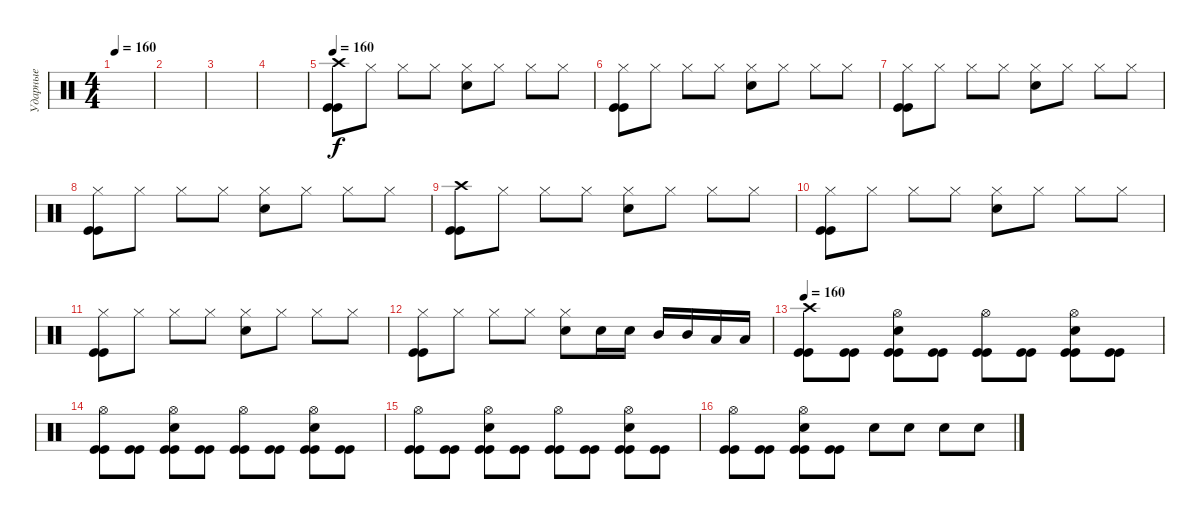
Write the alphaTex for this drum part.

\track ("Ударные" "Ударные") {instrument percussion}
\staff {score}
\articulation defaults
\ts (4 4)
\tempo 160
\clef neutral
\ks c
|
|
|
|
\tempo 160
("Crash high (hit)" "Kick (hit)" "Kick (hit)").8 "Hi-Hat (closed)".8 "Hi-Hat (closed)".8 "Hi-Hat (closed)".8 ("Hi-Hat (closed)" "Electric Snare (hit)").8 "Hi-Hat (closed)".8 "Hi-Hat (closed)".8 "Hi-Hat (closed)".8 |
("Hi-Hat (closed)" "Kick (hit)" "Kick (hit)").8 "Hi-Hat (closed)".8 "Hi-Hat (closed)".8 "Hi-Hat (closed)".8 ("Hi-Hat (closed)" "Electric Snare (hit)").8 "Hi-Hat (closed)".8 "Hi-Hat (closed)".8 "Hi-Hat (closed)".8 |
("Hi-Hat (closed)" "Kick (hit)" "Kick (hit)").8 "Hi-Hat (closed)".8 "Hi-Hat (closed)".8 "Hi-Hat (closed)".8 ("Hi-Hat (closed)" "Electric Snare (hit)").8 "Hi-Hat (closed)".8 "Hi-Hat (closed)".8 "Hi-Hat (closed)".8 |
("Hi-Hat (closed)" "Kick (hit)" "Kick (hit)").8 "Hi-Hat (closed)".8 "Hi-Hat (closed)".8 "Hi-Hat (closed)".8 ("Hi-Hat (closed)" "Electric Snare (hit)").8 "Hi-Hat (closed)".8 "Hi-Hat (closed)".8 "Hi-Hat (closed)".8 |
("Crash high (hit)" "Kick (hit)" "Kick (hit)").8 "Hi-Hat (closed)".8 "Hi-Hat (closed)".8 "Hi-Hat (closed)".8 ("Hi-Hat (closed)" "Electric Snare (hit)").8 "Hi-Hat (closed)".8 "Hi-Hat (closed)".8 "Hi-Hat (closed)".8 |
("Hi-Hat (closed)" "Kick (hit)" "Kick (hit)").8 "Hi-Hat (closed)".8 "Hi-Hat (closed)".8 "Hi-Hat (closed)".8 ("Hi-Hat (closed)" "Electric Snare (hit)").8 "Hi-Hat (closed)".8 "Hi-Hat (closed)".8 "Hi-Hat (closed)".8 |
("Hi-Hat (closed)" "Kick (hit)" "Kick (hit)").8 "Hi-Hat (closed)".8 "Hi-Hat (closed)".8 "Hi-Hat (closed)".8 ("Hi-Hat (closed)" "Electric Snare (hit)").8 "Hi-Hat (closed)".8 "Hi-Hat (closed)".8 "Hi-Hat (closed)".8 |
("Hi-Hat (closed)" "Kick (hit)" "Kick (hit)").8 "Hi-Hat (closed)".8 "Hi-Hat (closed)".8 "Hi-Hat (closed)".8 ("Hi-Hat (closed)" "Electric Snare (hit)").8 "Electric Snare (hit)".16 "Electric Snare (hit)".16 "Mid Tom (hit)".16 "Mid Tom (hit)".16 "Low Tom (hit)".16 "Low Tom (hit)".16 |
\tempo 160
("Crash high (hit)" "Kick (hit)" "Kick (hit)").8 ("Kick (hit)" "Kick (hit)").8 ("Hi-Hat (open)" "Electric Snare (hit)" "Kick (hit)" "Kick (hit)").8 ("Kick (hit)" "Kick (hit)").8 ("Hi-Hat (open)" "Kick (hit)" "Kick (hit)").8 ("Kick (hit)" "Kick (hit)").8 ("Hi-Hat (open)" "Electric Snare (hit)" "Kick (hit)" "Kick (hit)").8 ("Kick (hit)" "Kick (hit)").8 |
("Hi-Hat (open)" "Kick (hit)" "Kick (hit)").8 ("Kick (hit)" "Kick (hit)").8 ("Hi-Hat (open)" "Electric Snare (hit)" "Kick (hit)" "Kick (hit)").8 ("Kick (hit)" "Kick (hit)").8 ("Hi-Hat (open)" "Kick (hit)" "Kick (hit)").8 ("Kick (hit)" "Kick (hit)").8 ("Hi-Hat (open)" "Electric Snare (hit)" "Kick (hit)" "Kick (hit)").8 ("Kick (hit)" "Kick (hit)").8 |
("Hi-Hat (open)" "Kick (hit)" "Kick (hit)").8 ("Kick (hit)" "Kick (hit)").8 ("Hi-Hat (open)" "Electric Snare (hit)" "Kick (hit)" "Kick (hit)").8 ("Kick (hit)" "Kick (hit)").8 ("Hi-Hat (open)" "Kick (hit)" "Kick (hit)").8 ("Kick (hit)" "Kick (hit)").8 ("Hi-Hat (open)" "Electric Snare (hit)" "Kick (hit)" "Kick (hit)").8 ("Kick (hit)" "Kick (hit)").8 |
("Hi-Hat (open)" "Kick (hit)" "Kick (hit)").8 ("Kick (hit)" "Kick (hit)").8 ("Hi-Hat (open)" "Electric Snare (hit)" "Kick (hit)" "Kick (hit)").8 ("Kick (hit)" "Kick (hit)").8 "Electric Snare (hit)".8 "Electric Snare (hit)".8 "Electric Snare (hit)".8 "Electric Snare (hit)".8
